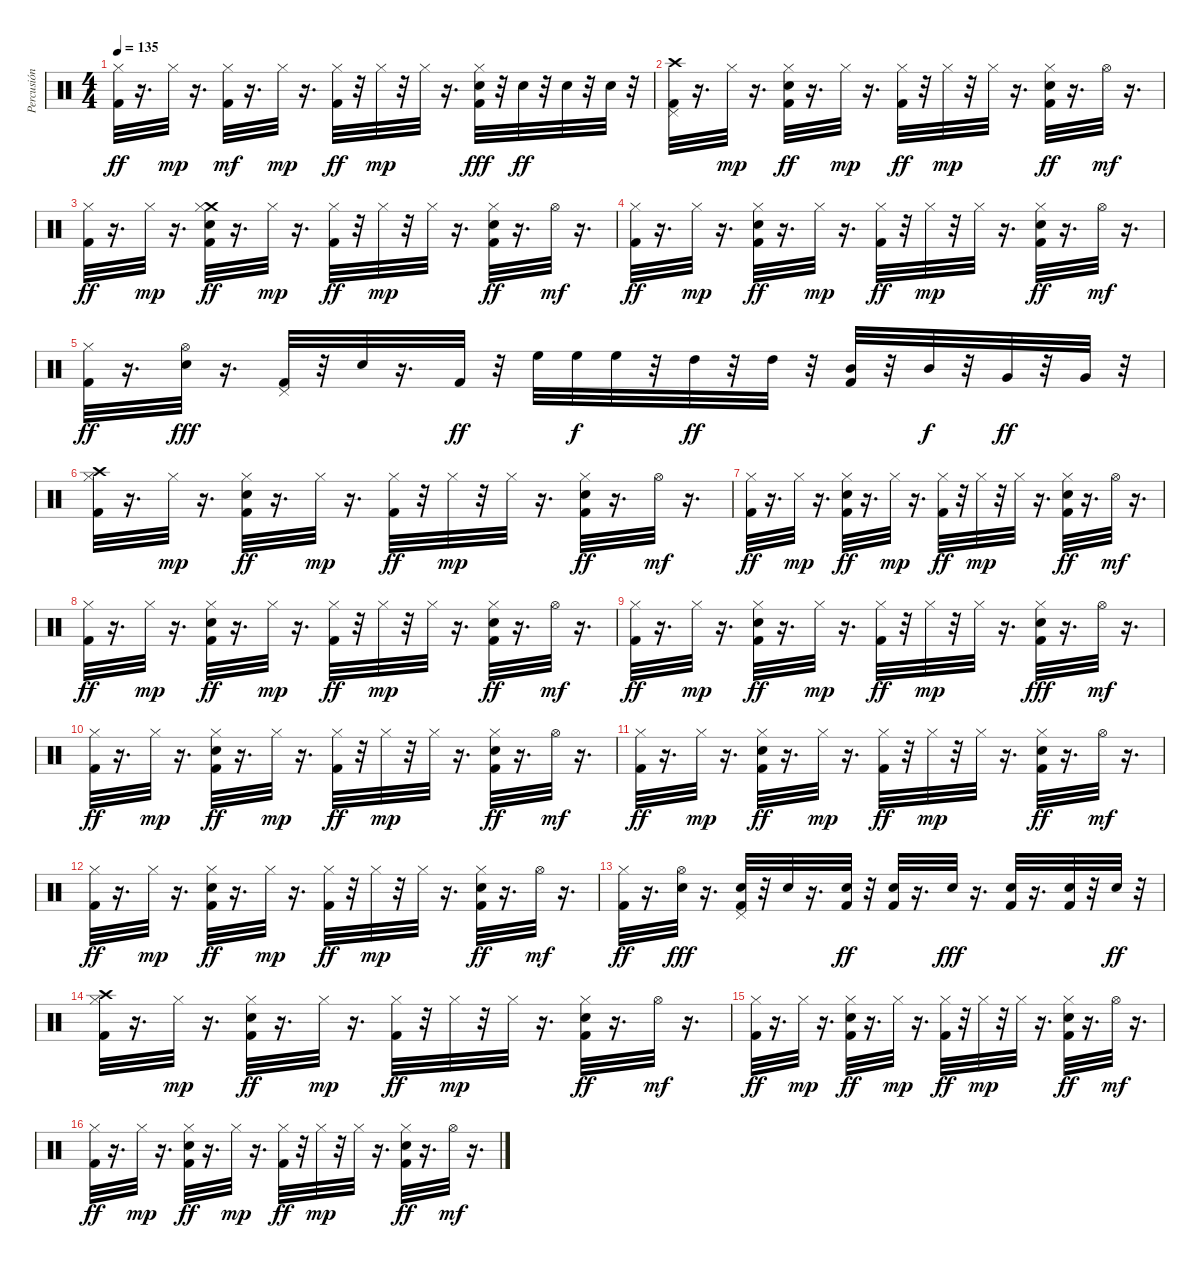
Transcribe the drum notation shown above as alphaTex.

\track ("Percusión" "Percusión") {instrument percussion}
\staff {score}
\articulation defaults
\ts (4 4)
\tempo 135
\clef neutral
\ks c
("Hi-Hat (closed)" "Kick (hit) 2").32{dy ff} r.16{d} "Hi-Hat (closed)".32{dy mp} r.16{d} ("Hi-Hat (closed)" "Kick (hit) 2").32{dy mf} r.16{d} "Hi-Hat (closed)".32{dy mp} r.16{d} ("Hi-Hat (closed)" "Kick (hit) 2").32{dy ff} r.32 "Hi-Hat (closed)".32{dy mp} r.32 "Hi-Hat (closed)".32 r.16{d} ("Hi-Hat (closed)" "Electric Snare (hit)" "Kick (hit) 2").32{dy fff} r.32 "Electric Snare (hit)".32{dy ff} r.32 "Electric Snare (hit)".32 r.32 "Electric Snare (hit)".32 r.32 |
("Crash high (hit)" "Pedal Hi-Hat (hit)" "Kick (hit) 2").32 r.16{d} "Hi-Hat (closed)".32{dy mp} r.16{d} ("Hi-Hat (closed)" "Electric Snare (hit)" "Kick (hit) 2").32{dy ff} r.16{d} "Hi-Hat (closed)".32{dy mp} r.16{d} ("Hi-Hat (closed)" "Kick (hit) 2").32{dy ff} r.32 "Hi-Hat (closed)".32{dy mp} r.32 "Hi-Hat (closed)".32 r.16{d} ("Hi-Hat (closed)" "Electric Snare (hit)" "Kick (hit) 2").32{dy ff} r.16{d} "Hi-Hat (open)".32{dy mf} r.16{d} |
("Hi-Hat (closed)" "Kick (hit) 2").32{dy ff} r.16{d} "Hi-Hat (closed)".32{dy mp} r.16{d} ("Crash medium (hit)" "Hi-Hat (closed)" "Electric Snare (hit)" "Kick (hit) 2").32{dy ff} r.16{d} "Hi-Hat (closed)".32{dy mp} r.16{d} ("Hi-Hat (closed)" "Kick (hit) 2").32{dy ff} r.32 "Hi-Hat (closed)".32{dy mp} r.32 "Hi-Hat (closed)".32 r.16{d} ("Hi-Hat (closed)" "Electric Snare (hit)" "Kick (hit) 2").32{dy ff} r.16{d} "Hi-Hat (open)".32{dy mf} r.16{d} |
("Hi-Hat (closed)" "Kick (hit) 2").32{dy ff} r.16{d} "Hi-Hat (closed)".32{dy mp} r.16{d} ("Hi-Hat (closed)" "Electric Snare (hit)" "Kick (hit) 2").32{dy ff} r.16{d} "Hi-Hat (closed)".32{dy mp} r.16{d} ("Hi-Hat (closed)" "Kick (hit) 2").32{dy ff} r.32 "Hi-Hat (closed)".32{dy mp} r.32 "Hi-Hat (closed)".32 r.16{d} ("Hi-Hat (closed)" "Electric Snare (hit)" "Kick (hit) 2").32{dy ff} r.16{d} "Hi-Hat (open)".32{dy mf} r.16{d} |
("Hi-Hat (closed)" "Kick (hit) 2").32{dy ff} r.16{d} ("Hi-Hat (open)" "Electric Snare (hit)").32{dy fff} r.16{d} ("Pedal Hi-Hat (hit)" "Kick (hit) 2").32 r.32 "Electric Snare (hit)".32 r.16{d} "Kick (hit) 2".32{dy ff} r.32 "High Floor Tom (hit)".32 "High Floor Tom (hit)".32{dy f} "High Floor Tom (hit)".32 r.32 "High Tom (hit)".32{dy ff} r.32 "High Tom (hit)".32 r.32 ("Mid Tom (hit)" "Kick (hit) 2").32 r.32 "Mid Tom (hit)".32{dy f} r.32 "Very Low Tom (hit)".32{dy ff} r.32 "Very Low Tom (hit)".32 r.32 |
("Crash high (hit)" "Hi-Hat (closed)" "Kick (hit) 2").32 r.16{d} "Hi-Hat (closed)".32{dy mp} r.16{d} ("Hi-Hat (closed)" "Electric Snare (hit)" "Kick (hit) 2").32{dy ff} r.16{d} "Hi-Hat (closed)".32{dy mp} r.16{d} ("Hi-Hat (closed)" "Kick (hit) 2").32{dy ff} r.32 "Hi-Hat (closed)".32{dy mp} r.32 "Hi-Hat (closed)".32 r.16{d} ("Hi-Hat (closed)" "Electric Snare (hit)" "Kick (hit) 2").32{dy ff} r.16{d} "Hi-Hat (open)".32{dy mf} r.16{d} |
("Hi-Hat (closed)" "Kick (hit) 2").32{dy ff} r.16{d} "Hi-Hat (closed)".32{dy mp} r.16{d} ("Hi-Hat (closed)" "Electric Snare (hit)" "Kick (hit) 2").32{dy ff} r.16{d} "Hi-Hat (closed)".32{dy mp} r.16{d} ("Hi-Hat (closed)" "Kick (hit) 2").32{dy ff} r.32 "Hi-Hat (closed)".32{dy mp} r.32 "Hi-Hat (closed)".32 r.16{d} ("Hi-Hat (closed)" "Electric Snare (hit)" "Kick (hit) 2").32{dy ff} r.16{d} "Hi-Hat (open)".32{dy mf} r.16{d} |
("Hi-Hat (closed)" "Kick (hit) 2").32{dy ff} r.16{d} "Hi-Hat (closed)".32{dy mp} r.16{d} ("Hi-Hat (closed)" "Electric Snare (hit)" "Kick (hit) 2").32{dy ff} r.16{d} "Hi-Hat (closed)".32{dy mp} r.16{d} ("Hi-Hat (closed)" "Kick (hit) 2").32{dy ff} r.32 "Hi-Hat (closed)".32{dy mp} r.32 "Hi-Hat (closed)".32 r.16{d} ("Hi-Hat (closed)" "Electric Snare (hit)" "Kick (hit) 2").32{dy ff} r.16{d} "Hi-Hat (open)".32{dy mf} r.16{d} |
("Hi-Hat (closed)" "Kick (hit) 2").32{dy ff} r.16{d} "Hi-Hat (closed)".32{dy mp} r.16{d} ("Hi-Hat (closed)" "Electric Snare (hit)" "Kick (hit) 2").32{dy ff} r.16{d} "Hi-Hat (closed)".32{dy mp} r.16{d} ("Hi-Hat (closed)" "Kick (hit) 2").32{dy ff} r.32 "Hi-Hat (closed)".32{dy mp} r.32 "Hi-Hat (closed)".32 r.16{d} ("Hi-Hat (closed)" "Electric Snare (hit)" "Kick (hit) 2").32{dy fff} r.16{d} "Hi-Hat (open)".32{dy mf} r.16{d} |
("Hi-Hat (closed)" "Kick (hit) 2").32{dy ff} r.16{d} "Hi-Hat (closed)".32{dy mp} r.16{d} ("Hi-Hat (closed)" "Electric Snare (hit)" "Kick (hit) 2").32{dy ff} r.16{d} "Hi-Hat (closed)".32{dy mp} r.16{d} ("Hi-Hat (closed)" "Kick (hit) 2").32{dy ff} r.32 "Hi-Hat (closed)".32{dy mp} r.32 "Hi-Hat (closed)".32 r.16{d} ("Hi-Hat (closed)" "Electric Snare (hit)" "Kick (hit) 2").32{dy ff} r.16{d} "Hi-Hat (open)".32{dy mf} r.16{d} |
("Hi-Hat (closed)" "Kick (hit) 2").32{dy ff} r.16{d} "Hi-Hat (closed)".32{dy mp} r.16{d} ("Hi-Hat (closed)" "Electric Snare (hit)" "Kick (hit) 2").32{dy ff} r.16{d} "Hi-Hat (closed)".32{dy mp} r.16{d} ("Hi-Hat (closed)" "Kick (hit) 2").32{dy ff} r.32 "Hi-Hat (closed)".32{dy mp} r.32 "Hi-Hat (closed)".32 r.16{d} ("Hi-Hat (closed)" "Electric Snare (hit)" "Kick (hit) 2").32{dy ff} r.16{d} "Hi-Hat (open)".32{dy mf} r.16{d} |
("Hi-Hat (closed)" "Kick (hit) 2").32{dy ff} r.16{d} "Hi-Hat (closed)".32{dy mp} r.16{d} ("Hi-Hat (closed)" "Electric Snare (hit)" "Kick (hit) 2").32{dy ff} r.16{d} "Hi-Hat (closed)".32{dy mp} r.16{d} ("Hi-Hat (closed)" "Kick (hit) 2").32{dy ff} r.32 "Hi-Hat (closed)".32{dy mp} r.32 "Hi-Hat (closed)".32 r.16{d} ("Hi-Hat (closed)" "Electric Snare (hit)" "Kick (hit) 2").32{dy ff} r.16{d} "Hi-Hat (open)".32{dy mf} r.16{d} |
("Hi-Hat (closed)" "Kick (hit) 2").32{dy ff} r.16{d} ("Hi-Hat (open)" "Electric Snare (hit)").32{dy fff} r.16{d} ("Pedal Hi-Hat (hit)" "Electric Snare (hit)" "Kick (hit) 2").32 r.32 "Electric Snare (hit)".32 r.16{d} ("Electric Snare (hit)" "Kick (hit) 2").32{dy ff} r.32 ("Electric Snare (hit)" "Kick (hit) 2").32 r.16{d} "Electric Snare (hit)".32{dy fff} r.16{d} ("Electric Snare (hit)" "Kick (hit) 2").32 r.16{d} ("Electric Snare (hit)" "Kick (hit) 2").32 r.32 "Electric Snare (hit)".32{dy ff} r.32 |
("Crash high (hit)" "Hi-Hat (closed)" "Kick (hit) 2").32 r.16{d} "Hi-Hat (closed)".32{dy mp} r.16{d} ("Hi-Hat (closed)" "Electric Snare (hit)" "Kick (hit) 2").32{dy ff} r.16{d} "Hi-Hat (closed)".32{dy mp} r.16{d} ("Hi-Hat (closed)" "Kick (hit) 2").32{dy ff} r.32 "Hi-Hat (closed)".32{dy mp} r.32 "Hi-Hat (closed)".32 r.16{d} ("Hi-Hat (closed)" "Electric Snare (hit)" "Kick (hit) 2").32{dy ff} r.16{d} "Hi-Hat (open)".32{dy mf} r.16{d} |
("Hi-Hat (closed)" "Kick (hit) 2").32{dy ff} r.16{d} "Hi-Hat (closed)".32{dy mp} r.16{d} ("Hi-Hat (closed)" "Electric Snare (hit)" "Kick (hit) 2").32{dy ff} r.16{d} "Hi-Hat (closed)".32{dy mp} r.16{d} ("Hi-Hat (closed)" "Kick (hit) 2").32{dy ff} r.32 "Hi-Hat (closed)".32{dy mp} r.32 "Hi-Hat (closed)".32 r.16{d} ("Hi-Hat (closed)" "Electric Snare (hit)" "Kick (hit) 2").32{dy ff} r.16{d} "Hi-Hat (open)".32{dy mf} r.16{d} |
("Hi-Hat (closed)" "Kick (hit) 2").32{dy ff} r.16{d} "Hi-Hat (closed)".32{dy mp} r.16{d} ("Hi-Hat (closed)" "Electric Snare (hit)" "Kick (hit) 2").32{dy ff} r.16{d} "Hi-Hat (closed)".32{dy mp} r.16{d} ("Hi-Hat (closed)" "Kick (hit) 2").32{dy ff} r.32 "Hi-Hat (closed)".32{dy mp} r.32 "Hi-Hat (closed)".32 r.16{d} ("Hi-Hat (closed)" "Electric Snare (hit)" "Kick (hit) 2").32{dy ff} r.16{d} "Hi-Hat (open)".32{dy mf} r.16{d}
